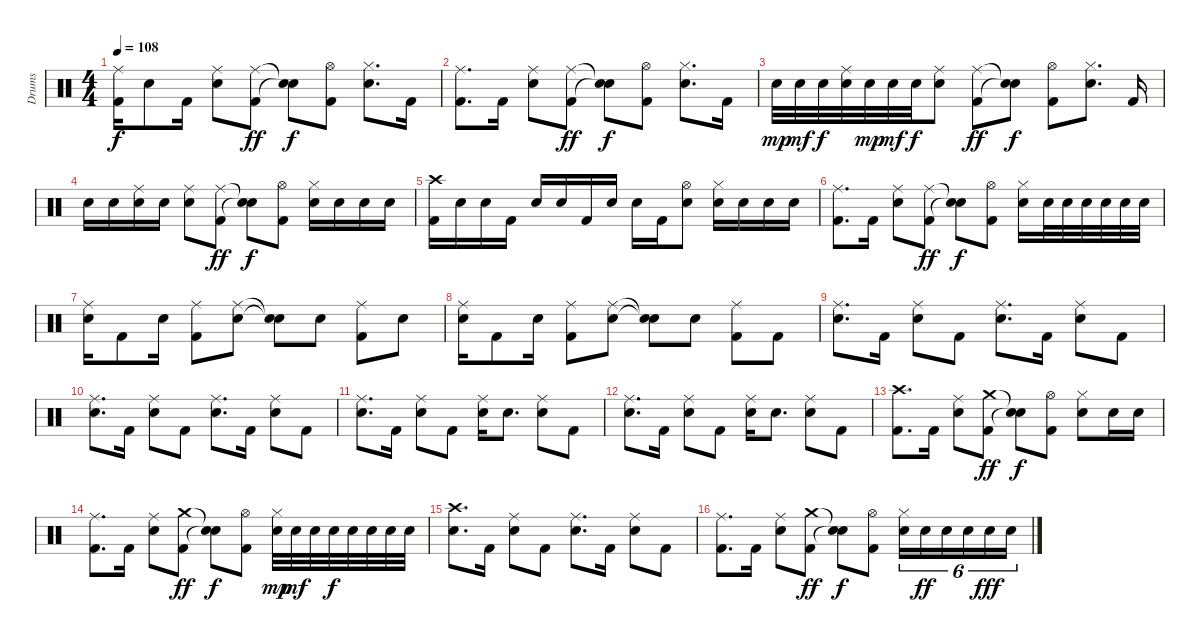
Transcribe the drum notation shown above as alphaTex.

\track ("Drums" "Drums") {instrument percussion}
\staff {score}
\articulation defaults
\ts (4 4)
\tempo 108
\clef neutral
\ks c
("Ride (middle)" "Kick (hit) 2").16{dy f} "Electric Snare (hit)".8 "Kick (hit) 2".16 ("Ride (middle)" "Electric Snare (hit)").8 ("Ride (middle)" "Kick (hit) 2").8{dy ff} ("Snare (hit)"{t} "Snare (hit)"{t}).8{dy f} ("Hi-Hat (open)" "Kick (hit) 2").8 ("Hi-Hat (closed)" "Electric Snare (hit)").8{d} "Kick (hit) 2".16 |
("Ride (middle)" "Kick (hit) 2").8{d} "Kick (hit) 2".16 ("Ride (middle)" "Electric Snare (hit)").8 ("Ride (middle)" "Kick (hit) 2").8{dy ff} ("Snare (hit)"{t} "Snare (hit)"{t}).8{dy f} ("Hi-Hat (open)" "Kick (hit) 2").8 ("Hi-Hat (closed)" "Electric Snare (hit)").8{d} "Kick (hit) 2".16 |
"Electric Snare (hit)".32{dy mp} "Electric Snare (hit)".32{dy mf} "Electric Snare (hit)".32{dy f} ("Ride (middle)" "Electric Snare (hit)").32 "Electric Snare (hit)".32{dy mp} "Electric Snare (hit)".32{dy mf} "Electric Snare (hit)".32{dy f} ("Ride (middle)" "Electric Snare (hit)").8 ("Ride (middle)" "Kick (hit) 2").8{dy ff} ("Snare (hit)"{t} "Snare (hit)"{t}).8{dy f} ("Hi-Hat (open)" "Kick (hit) 2").8 ("Hi-Hat (closed)" "Electric Snare (hit)").8{d} "Kick (hit) 2".16 |
"Electric Snare (hit)".16 "Electric Snare (hit)".16 ("Ride (middle)" "Electric Snare (hit)").16 "Electric Snare (hit)".16 ("Ride (middle)" "Electric Snare (hit)").8 ("Ride (middle)" "Kick (hit) 2").8{dy ff} ("Snare (hit)"{t} "Snare (hit)"{t}).8{dy f} ("Hi-Hat (open)" "Kick (hit) 2").8 ("Hi-Hat (closed)" "Electric Snare (hit)").16 "Electric Snare (hit)".16 "Electric Snare (hit)".16 "Electric Snare (hit)".16 |
("Crash high (hit)" "Kick (hit) 2").16 "Electric Snare (hit)".16 "Electric Snare (hit)".16 "Kick (hit) 2".16 "Electric Snare (hit)".16 "Electric Snare (hit)".16 "Kick (hit) 2".16 "Electric Snare (hit)".16 "Electric Snare (hit)".16 "Kick (hit) 2".16 ("Hi-Hat (open)" "Electric Snare (hit)").8 ("Hi-Hat (closed)" "Electric Snare (hit)").16 "Electric Snare (hit)".16 "Electric Snare (hit)".16 "Electric Snare (hit)".16 |
("Ride (middle)" "Kick (hit) 2").8{d} "Kick (hit) 2".16 ("Ride (middle)" "Electric Snare (hit)").8 ("Ride (middle)" "Kick (hit) 2").8{dy ff} ("Snare (hit)"{t} "Snare (hit)"{t}).8{dy f} ("Hi-Hat (open)" "Kick (hit) 2").8 ("Hi-Hat (closed)" "Electric Snare (hit)").16 "Electric Snare (hit)".32 "Electric Snare (hit)".32 "Electric Snare (hit)".32 "Electric Snare (hit)".32 "Electric Snare (hit)".32 "Electric Snare (hit)".32 |
("Ride (middle)" "Electric Snare (hit)").16 "Kick (hit) 2".8 "Electric Snare (hit)".16 ("Ride (middle)" "Kick (hit) 2").8 ("Ride (middle)" "Electric Snare (hit)").8 ("Snare (hit)"{t} "Snare (hit)"{t}).8 "Electric Snare (hit)".8 ("Ride (middle)" "Kick (hit) 2").8 "Electric Snare (hit)".8 |
("Ride (middle)" "Electric Snare (hit)").16 "Kick (hit) 2".8 "Electric Snare (hit)".16 ("Ride (middle)" "Kick (hit) 2").8 ("Ride (middle)" "Electric Snare (hit)").8 ("Snare (hit)"{t} "Snare (hit)"{t}).8 "Electric Snare (hit)".8 ("Ride (middle)" "Kick (hit) 2").8 "Kick (hit) 2".8 |
("Ride (middle)" "Electric Snare (hit)").8{d} "Kick (hit) 2".16 ("Ride (middle)" "Electric Snare (hit)").8 "Kick (hit) 2".8 ("Ride (middle)" "Electric Snare (hit)").8{d} "Kick (hit) 2".16 ("Ride (middle)" "Electric Snare (hit)").8 "Kick (hit) 2".8 |
("Ride (middle)" "Electric Snare (hit)").8{d} "Kick (hit) 2".16 ("Ride (middle)" "Electric Snare (hit)").8 "Kick (hit) 2".8 ("Ride (middle)" "Electric Snare (hit)").8{d} "Kick (hit) 2".16 ("Ride (middle)" "Electric Snare (hit)").8 "Kick (hit) 2".8 |
("Ride (middle)" "Electric Snare (hit)").8{d} "Kick (hit) 2".16 ("Ride (middle)" "Electric Snare (hit)").8 "Kick (hit) 2".8 ("Ride (middle)" "Electric Snare (hit)").16 "Electric Snare (hit)".8{d} ("Ride (middle)" "Electric Snare (hit)").8 "Kick (hit) 2".8 |
("Ride (middle)" "Electric Snare (hit)").8{d} "Kick (hit) 2".16 ("Ride (middle)" "Electric Snare (hit)").8 "Kick (hit) 2".8 ("Ride (middle)" "Electric Snare (hit)").16 "Electric Snare (hit)".8{d} ("Ride (middle)" "Electric Snare (hit)").8 "Kick (hit) 2".8 |
("Crash high (hit)" "Kick (hit) 2").8{d} "Kick (hit) 2".16 ("Ride (middle)" "Electric Snare (hit)").8 ("Crash medium (hit)" "Kick (hit) 2").8{dy ff} ("Snare (hit)"{t} "Snare (hit)"{t}).8{dy f} ("Hi-Hat (open)" "Kick (hit) 2").8 ("Hi-Hat (closed)" "Electric Snare (hit)").8 "Electric Snare (hit)".16 "Electric Snare (hit)".16 |
("Ride (middle)" "Kick (hit) 2").8{d} "Kick (hit) 2".16 ("Ride (middle)" "Electric Snare (hit)").8 ("Crash medium (hit)" "Kick (hit) 2").8{dy ff} ("Snare (hit)"{t} "Snare (hit)"{t}).8{dy f} ("Hi-Hat (open)" "Kick (hit) 2").8 ("Hi-Hat (closed)" "Electric Snare (hit)").32{dy mp} "Electric Snare (hit)".32{dy mf} "Electric Snare (hit)".32 "Electric Snare (hit)".32{dy f} "Electric Snare (hit)".32 "Electric Snare (hit)".32 "Electric Snare (hit)".32 "Electric Snare (hit)".32 |
("Crash high (hit)" "Electric Snare (hit)").8{d} "Kick (hit) 2".16 ("Ride (middle)" "Electric Snare (hit)").8 "Kick (hit) 2".8 ("Ride (middle)" "Electric Snare (hit)").8{d} "Kick (hit) 2".16 ("Ride (middle)" "Electric Snare (hit)").8 "Kick (hit) 2".8 |
("Ride (middle)" "Kick (hit) 2").8{d} "Kick (hit) 2".16 ("Ride (middle)" "Electric Snare (hit)").8 ("Crash medium (hit)" "Kick (hit) 2").8{dy ff} ("Snare (hit)"{t} "Snare (hit)"{t}).8{dy f} ("Hi-Hat (open)" "Kick (hit) 2").8 ("Hi-Hat (closed)" "Electric Snare (hit)").16{tu (6 4)} "Electric Snare (hit)".16{tu (6 4) dy ff} "Electric Snare (hit)".16{tu (6 4)} "Electric Snare (hit)".16{tu (6 4)} "Electric Snare (hit)".16{tu (6 4) dy fff} "Electric Snare (hit)".16{tu (6 4)}
